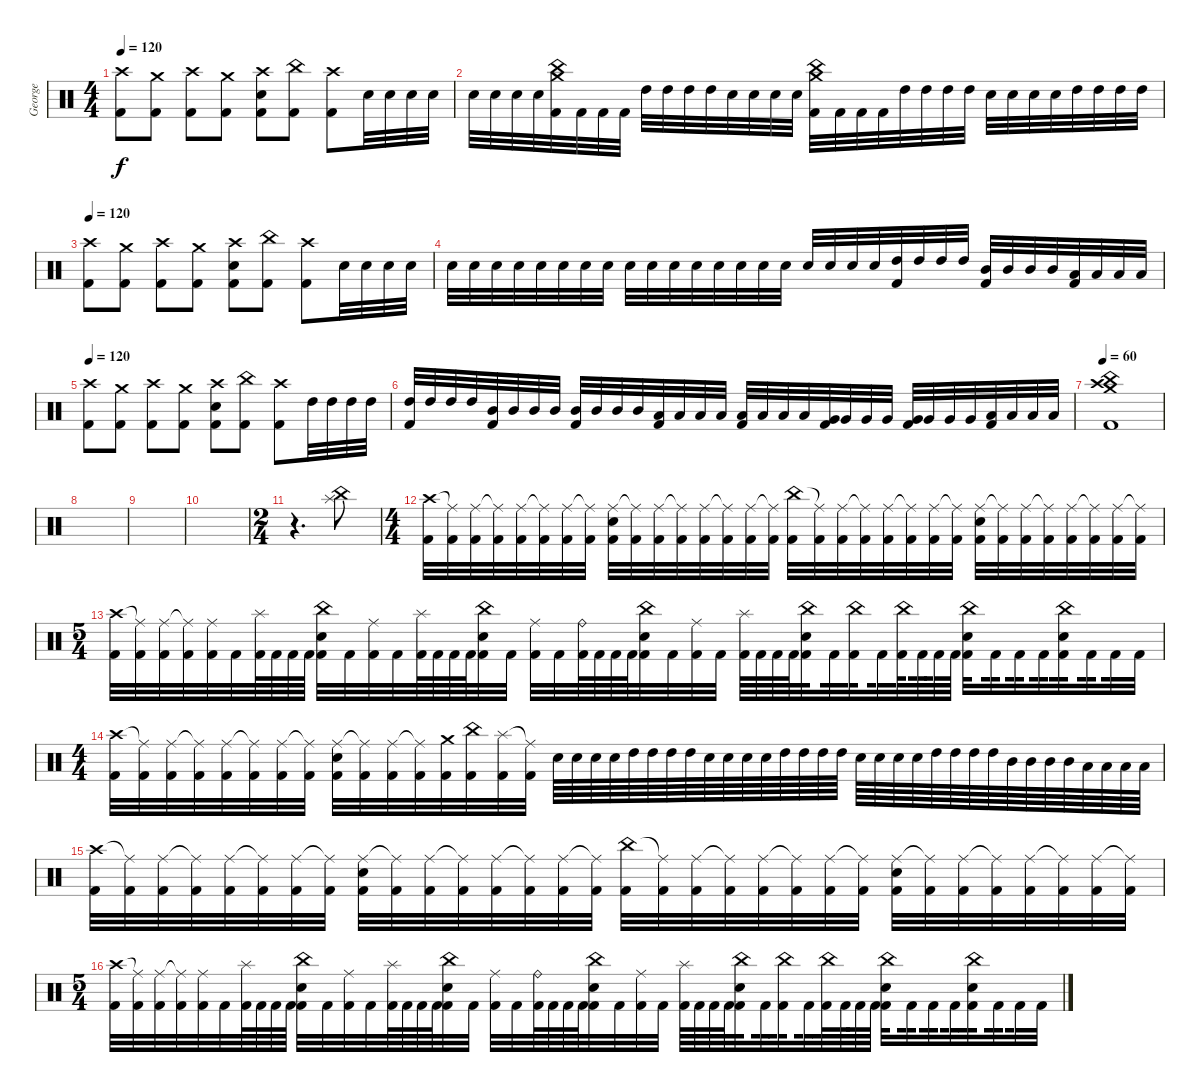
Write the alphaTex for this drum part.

\track ("George" "George") {instrument percussion}
\staff {score}
\articulation defaults
\ts (4 4)
\tempo 120
\clef neutral
\ks c
("Crash high (hit)" "Kick (hit) 2").8{dy f} ("Crash medium (hit)" "Kick (hit) 2").8 ("Crash high (hit)" "Kick (hit) 2").8 ("Crash medium (hit)" "Kick (hit) 2").8 ("Crash high (hit)" "Snare (hit) 2" "Kick (hit) 2").8 ("China (hit)" "Kick (hit) 2").8 ("Crash high (hit)" "Kick (hit) 2").8 "Snare (hit) 2".32 "Snare (hit) 2".32 "Snare (hit) 2".32 "Snare (hit) 2".32 |
"Snare (hit) 2".32 "Snare (hit) 2".32 "Snare (hit) 2".32 "Snare (hit) 2".32 ("China (hit)" "Crash medium (hit)" "Kick (hit) 2").32 "Kick (hit) 2".32 "Kick (hit) 2".32 "Kick (hit) 2".32 "High Tom (hit)".32 "High Tom (hit)".32 "High Tom (hit)".32 "High Tom (hit)".32 "Snare (hit) 2".32 "Snare (hit) 2".32 "Snare (hit) 2".32 "Snare (hit) 2".32 ("China (hit)" "Crash medium (hit)" "Kick (hit) 2").32 "Kick (hit) 2".32 "Kick (hit) 2".32 "Kick (hit) 2".32 "High Tom (hit)".32 "High Tom (hit)".32 "High Tom (hit)".32 "High Tom (hit)".32 "Snare (hit) 2".32 "Snare (hit) 2".32 "Snare (hit) 2".32 "Snare (hit) 2".32 "High Tom (hit)".32 "High Tom (hit)".32 "High Tom (hit)".32 "High Tom (hit)".32 |
\tempo 120
("Crash high (hit)" "Kick (hit) 2").8 ("Crash medium (hit)" "Kick (hit) 2").8 ("Crash high (hit)" "Kick (hit) 2").8 ("Crash medium (hit)" "Kick (hit) 2").8 ("Crash high (hit)" "Snare (hit) 2" "Kick (hit) 2").8 ("China (hit)" "Kick (hit) 2").8 ("Crash high (hit)" "Kick (hit) 2").8 "Snare (hit) 2".32 "Snare (hit) 2".32 "Snare (hit) 2".32 "Snare (hit) 2".32 |
"Snare (hit) 2".32 "Snare (hit) 2".32 "Snare (hit) 2".32 "Snare (hit) 2".32 "Snare (hit) 2".32 "Snare (hit) 2".32 "Snare (hit) 2".32 "Snare (hit) 2".32 "Snare (hit) 2".32 "Snare (hit) 2".32 "Snare (hit) 2".32 "Snare (hit) 2".32 "Snare (hit) 2".32 "Snare (hit) 2".32 "Snare (hit) 2".32 "Snare (hit) 2".32 "Snare (hit) 2".32 "Snare (hit) 2".32 "Snare (hit) 2".32 "Snare (hit) 2".32 ("High Tom (hit)" "Kick (hit) 2").32 "High Tom (hit)".32 "High Tom (hit)".32 "High Tom (hit)".32 ("Mid Tom (hit)" "Kick (hit) 2").32 "Mid Tom (hit)".32 "Mid Tom (hit)".32 "Mid Tom (hit)".32 ("Low Tom (hit)" "Kick (hit) 2").32 "Low Tom (hit)".32 "Low Tom (hit)".32 "Low Tom (hit)".32 |
\tempo 120
("Crash high (hit)" "Kick (hit) 2").8 ("Crash medium (hit)" "Kick (hit) 2").8 ("Crash high (hit)" "Kick (hit) 2").8 ("Crash medium (hit)" "Kick (hit) 2").8 ("Crash high (hit)" "Snare (hit) 2" "Kick (hit) 2").8 ("China (hit)" "Kick (hit) 2").8 ("Crash high (hit)" "Kick (hit) 2").8 "High Tom (hit)".32 "High Tom (hit)".32 "High Tom (hit)".32 "High Tom (hit)".32 |
("High Tom (hit)" "Kick (hit) 2").32 "High Tom (hit)".32 "High Tom (hit)".32 "High Tom (hit)".32 ("Mid Tom (hit)" "Kick (hit) 2").32 "Mid Tom (hit)".32 "Mid Tom (hit)".32 "Mid Tom (hit)".32 ("Mid Tom (hit)" "Kick (hit) 2").32 "Mid Tom (hit)".32 "Mid Tom (hit)".32 "Mid Tom (hit)".32 ("Low Tom (hit)" "Kick (hit) 2").32 "Low Tom (hit)".32 "Low Tom (hit)".32 "Low Tom (hit)".32 ("Low Tom (hit)" "Kick (hit) 2").32 "Low Tom (hit)".32 "Low Tom (hit)".32 "Low Tom (hit)".32 ("Very Low Tom (hit)" "Kick (hit) 2").32 "Very Low Tom (hit)".32 "Very Low Tom (hit)".32 "Very Low Tom (hit)".32 ("Very Low Tom (hit)" "Kick (hit) 2").32 "Very Low Tom (hit)".32 "Very Low Tom (hit)".32 "Very Low Tom (hit)".32 ("Low Floor Tom (hit)" "Kick (hit) 2").32 "Low Floor Tom (hit)".32 "Low Floor Tom (hit)".32 "Low Floor Tom (hit)".32 |
\tempo 60
("Crash high (hit)" "China (hit)" "Crash medium (hit)" "Kick (hit) 2").1 |
|
|
|
\ts (2 4)
r.4{d} ("China (hit)" "Splash (hit)").8 |
\ts (4 4)
("Crash high (hit)" "Kick (hit) 2").32 ("Ride (middle)"{t} "Kick (hit) 2").32 ("Ride (middle)" "Kick (hit) 2").32 ("Ride (middle)"{t} "Kick (hit) 2").32 ("Ride (middle)" "Kick (hit) 2").32 ("Ride (middle)"{t} "Kick (hit) 2").32 ("Ride (middle)" "Kick (hit) 2").32 ("Ride (middle)"{t} "Kick (hit) 2").32 ("Ride (middle)" "Snare (hit) 2" "Kick (hit) 2").32 ("Ride (middle)"{t} "Kick (hit) 2").32 ("Ride (middle)" "Kick (hit) 2").32 ("Ride (middle)"{t} "Kick (hit) 2").32 ("Ride (middle)" "Kick (hit) 2").32 ("Ride (middle)"{t} "Kick (hit) 2").32 ("Ride (middle)" "Kick (hit) 2").32 ("Ride (middle)"{t} "Kick (hit) 2").32 ("China (hit)" "Kick (hit) 2").32 ("Ride (middle)"{t} "Kick (hit) 2").32 ("Ride (middle)" "Kick (hit) 2").32 ("Ride (middle)"{t} "Kick (hit) 2").32 ("Ride (middle)" "Kick (hit) 2").32 ("Ride (middle)"{t} "Kick (hit) 2").32 ("Ride (middle)" "Kick (hit) 2").32 ("Ride (middle)"{t} "Kick (hit) 2").32 ("Ride (middle)" "Snare (hit) 2" "Kick (hit) 2").32 ("Ride (middle)"{t} "Kick (hit) 2").32 ("Ride (middle)" "Kick (hit) 2").32 ("Ride (middle)"{t} "Kick (hit) 2").32 ("Ride (middle)" "Kick (hit) 2").32 ("Ride (middle)"{t} "Kick (hit) 2").32 ("Ride (middle)" "Kick (hit) 2").32 ("Ride (middle)"{t} "Kick (hit) 2").32 |
\ts (5 4)
("Crash high (hit)" "Kick (hit) 2").32 ("Ride (middle)"{t} "Kick (hit) 2").32 ("Ride (middle)" "Kick (hit) 2").32 ("Ride (middle)"{t} "Kick (hit) 2").32 ("Ride (middle)" "Kick (hit) 2").32 "Kick (hit) 2".32 ("Splash (hit)" "Kick (hit) 2").64 "Kick (hit) 2".64 "Kick (hit) 2".64 "Kick (hit) 2".64 ("China (hit)" "Snare (hit) 2" "Kick (hit) 2").32 "Kick (hit) 2".32 ("Ride (middle)" "Kick (hit) 2").32 "Kick (hit) 2".32 ("Splash (hit)" "Kick (hit) 2").64 "Kick (hit) 2".64 "Kick (hit) 2".64 "Kick (hit) 2".64 ("China (hit)" "Snare (hit) 2" "Kick (hit) 2").32 "Kick (hit) 2".32 ("Ride (middle)" "Kick (hit) 2").32 "Kick (hit) 2".32 ("Ride (bell)" "Kick (hit) 2").64 "Kick (hit) 2".64 "Kick (hit) 2".64 "Kick (hit) 2".64 ("China (hit)" "Snare (hit) 2" "Kick (hit) 2").32 "Kick (hit) 2".32 ("Ride (middle)" "Kick (hit) 2").32 "Kick (hit) 2".32 ("Splash (hit)" "Kick (hit) 2").64 "Kick (hit) 2".64 "Kick (hit) 2".64 "Kick (hit) 2".64{beam splitsecondary} ("China (hit)" "Snare (hit) 2" "Kick (hit) 2").32{beam splitsecondary} "Kick (hit) 2".32{beam splitsecondary} ("China (hit)" "Kick (hit) 2").32{beam splitsecondary} "Kick (hit) 2".32{beam splitsecondary} ("China (hit)" "Kick (hit) 2").64{beam splitsecondary} "Kick (hit) 2".64{beam splitsecondary} "Kick (hit) 2".64 "Kick (hit) 2".64 ("China (hit)" "Snare (hit) 2" "Kick (hit) 2").32{beam splitsecondary} "Kick (hit) 2".32{beam splitsecondary} "Kick (hit) 2".32{beam splitsecondary} "Kick (hit) 2".32{beam splitsecondary} ("China (hit)" "Snare (hit) 2" "Kick (hit) 2").32{beam splitsecondary} "Kick (hit) 2".32{beam splitsecondary} "Kick (hit) 2".32 "Kick (hit) 2".32 |
\ts (4 4)
("Crash high (hit)" "Kick (hit) 2").32 ("Ride (middle)"{t} "Kick (hit) 2").32 ("Ride (middle)" "Kick (hit) 2").32 ("Ride (middle)"{t} "Kick (hit) 2").32 ("Ride (middle)" "Kick (hit) 2").32 ("Ride (middle)"{t} "Kick (hit) 2").32 ("Ride (middle)" "Kick (hit) 2").32 ("Ride (middle)"{t} "Kick (hit) 2").32 ("Ride (middle)" "Snare (hit) 2" "Kick (hit) 2").32 ("Ride (middle)"{t} "Kick (hit) 2").32 ("Ride (middle)" "Kick (hit) 2").32 ("Ride (middle)"{t} "Kick (hit) 2").32 ("Crash medium (hit)" "Kick (hit) 2").32 ("China (hit)" "Kick (hit) 2").32 ("Splash (hit)" "Kick (hit) 2").32 ("Ride (middle)"{t} "Kick (hit) 2").32 "Snare (hit) 2".64 "Snare (hit) 2".64 "Snare (hit) 2".64 "Snare (hit) 2".64 "High Tom (hit)".64 "High Tom (hit)".64 "High Tom (hit)".64 "High Tom (hit)".64 "Snare (hit) 2".64 "Snare (hit) 2".64 "Snare (hit) 2".64 "Snare (hit) 2".64 "High Tom (hit)".64 "High Tom (hit)".64 "High Tom (hit)".64 "High Tom (hit)".64 "Snare (hit) 2".64 "Snare (hit) 2".64 "Snare (hit) 2".64 "Snare (hit) 2".64 "High Tom (hit)".64 "High Tom (hit)".64 "High Tom (hit)".64 "High Tom (hit)".64 "Mid Tom (hit)".64 "Mid Tom (hit)".64 "Mid Tom (hit)".64 "Mid Tom (hit)".64 "Low Tom (hit)".64 "Low Tom (hit)".64 "Low Tom (hit)".64 "Low Tom (hit)".64 |
("Crash high (hit)" "Kick (hit) 2").32 ("Ride (middle)"{t} "Kick (hit) 2").32 ("Ride (middle)" "Kick (hit) 2").32 ("Ride (middle)"{t} "Kick (hit) 2").32 ("Ride (middle)" "Kick (hit) 2").32 ("Ride (middle)"{t} "Kick (hit) 2").32 ("Ride (middle)" "Kick (hit) 2").32 ("Ride (middle)"{t} "Kick (hit) 2").32 ("Ride (middle)" "Snare (hit) 2" "Kick (hit) 2").32 ("Ride (middle)"{t} "Kick (hit) 2").32 ("Ride (middle)" "Kick (hit) 2").32 ("Ride (middle)"{t} "Kick (hit) 2").32 ("Ride (middle)" "Kick (hit) 2").32 ("Ride (middle)"{t} "Kick (hit) 2").32 ("Ride (middle)" "Kick (hit) 2").32 ("Ride (middle)"{t} "Kick (hit) 2").32 ("China (hit)" "Kick (hit) 2").32 ("Ride (middle)"{t} "Kick (hit) 2").32 ("Ride (middle)" "Kick (hit) 2").32 ("Ride (middle)"{t} "Kick (hit) 2").32 ("Ride (middle)" "Kick (hit) 2").32 ("Ride (middle)"{t} "Kick (hit) 2").32 ("Ride (middle)" "Kick (hit) 2").32 ("Ride (middle)"{t} "Kick (hit) 2").32 ("Ride (middle)" "Snare (hit) 2" "Kick (hit) 2").32 ("Ride (middle)"{t} "Kick (hit) 2").32 ("Ride (middle)" "Kick (hit) 2").32 ("Ride (middle)"{t} "Kick (hit) 2").32 ("Ride (middle)" "Kick (hit) 2").32 ("Ride (middle)"{t} "Kick (hit) 2").32 ("Ride (middle)" "Kick (hit) 2").32 ("Ride (middle)"{t} "Kick (hit) 2").32 |
\ts (5 4)
("Crash high (hit)" "Kick (hit) 2").32 ("Ride (middle)"{t} "Kick (hit) 2").32 ("Ride (middle)" "Kick (hit) 2").32 ("Ride (middle)"{t} "Kick (hit) 2").32 ("Ride (middle)" "Kick (hit) 2").32 "Kick (hit) 2".32 ("Splash (hit)" "Kick (hit) 2").64 "Kick (hit) 2".64 "Kick (hit) 2".64 "Kick (hit) 2".64 ("China (hit)" "Snare (hit) 2" "Kick (hit) 2").32 "Kick (hit) 2".32 ("Ride (middle)" "Kick (hit) 2").32 "Kick (hit) 2".32 ("Splash (hit)" "Kick (hit) 2").64 "Kick (hit) 2".64 "Kick (hit) 2".64 "Kick (hit) 2".64 ("China (hit)" "Snare (hit) 2" "Kick (hit) 2").32 "Kick (hit) 2".32 ("Ride (middle)" "Kick (hit) 2").32 "Kick (hit) 2".32 ("Ride (bell)" "Kick (hit) 2").64 "Kick (hit) 2".64 "Kick (hit) 2".64 "Kick (hit) 2".64 ("China (hit)" "Snare (hit) 2" "Kick (hit) 2").32 "Kick (hit) 2".32 ("Ride (middle)" "Kick (hit) 2").32 "Kick (hit) 2".32 ("Splash (hit)" "Kick (hit) 2").64 "Kick (hit) 2".64 "Kick (hit) 2".64 "Kick (hit) 2".64{beam splitsecondary} ("China (hit)" "Snare (hit) 2" "Kick (hit) 2").32{beam splitsecondary} "Kick (hit) 2".32{beam splitsecondary} ("China (hit)" "Kick (hit) 2").32{beam splitsecondary} "Kick (hit) 2".32{beam splitsecondary} ("China (hit)" "Kick (hit) 2").64{beam splitsecondary} "Kick (hit) 2".64{beam splitsecondary} "Kick (hit) 2".64 "Kick (hit) 2".64 ("China (hit)" "Snare (hit) 2" "Kick (hit) 2").32{beam splitsecondary} "Kick (hit) 2".32{beam splitsecondary} "Kick (hit) 2".32{beam splitsecondary} "Kick (hit) 2".32{beam splitsecondary} ("China (hit)" "Snare (hit) 2" "Kick (hit) 2").32{beam splitsecondary} "Kick (hit) 2".32{beam splitsecondary} "Kick (hit) 2".32 "Kick (hit) 2".32
